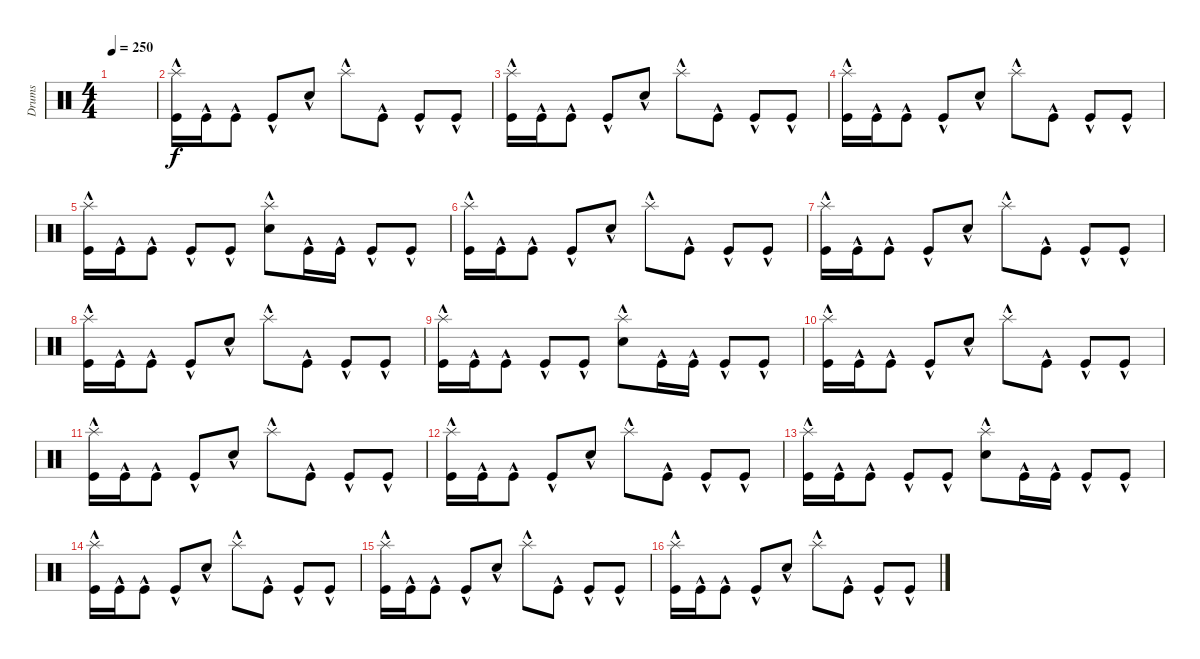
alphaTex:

\track ("Drums" "Drums") {instrument percussion}
\staff {score}
\articulation defaults
\ts (4 4)
\tempo 250
\clef neutral
\ks c
|
("Kick (hit)"{hac} "Splash (hit)"{hac}).16 "Kick (hit)"{hac}.16 "Kick (hit)"{hac}.8 "Kick (hit)"{hac}.8 "Snare (hit) 2"{hac}.8 "Splash (hit)"{hac}.8 "Kick (hit)"{hac}.8 "Kick (hit)"{hac}.8 "Kick (hit)"{hac}.8 |
("Kick (hit)"{hac} "Splash (hit)"{hac}).16 "Kick (hit)"{hac}.16 "Kick (hit)"{hac}.8 "Kick (hit)"{hac}.8 "Snare (hit) 2"{hac}.8 "Splash (hit)"{hac}.8 "Kick (hit)"{hac}.8 "Kick (hit)"{hac}.8 "Kick (hit)"{hac}.8 |
("Kick (hit)"{hac} "Splash (hit)"{hac}).16 "Kick (hit)"{hac}.16 "Kick (hit)"{hac}.8 "Kick (hit)"{hac}.8 "Snare (hit) 2"{hac}.8 "Splash (hit)"{hac}.8 "Kick (hit)"{hac}.8 "Kick (hit)"{hac}.8 "Kick (hit)"{hac}.8 |
("Kick (hit)"{hac} "Splash (hit)"{hac}).16 "Kick (hit)"{hac}.16 "Kick (hit)"{hac}.8 "Kick (hit)"{hac}.8 "Kick (hit)"{hac}.8 ("Snare (hit) 2"{hac} "Splash (hit)"{hac}).8 "Kick (hit)"{hac}.16 "Kick (hit)"{hac}.16 "Kick (hit)"{hac}.8 "Kick (hit)"{hac}.8 |
("Kick (hit)"{hac} "Splash (hit)"{hac}).16 "Kick (hit)"{hac}.16 "Kick (hit)"{hac}.8 "Kick (hit)"{hac}.8 "Snare (hit) 2"{hac}.8 "Splash (hit)"{hac}.8 "Kick (hit)"{hac}.8 "Kick (hit)"{hac}.8 "Kick (hit)"{hac}.8 |
("Kick (hit)"{hac} "Splash (hit)"{hac}).16 "Kick (hit)"{hac}.16 "Kick (hit)"{hac}.8 "Kick (hit)"{hac}.8 "Snare (hit) 2"{hac}.8 "Splash (hit)"{hac}.8 "Kick (hit)"{hac}.8 "Kick (hit)"{hac}.8 "Kick (hit)"{hac}.8 |
("Kick (hit)"{hac} "Splash (hit)"{hac}).16 "Kick (hit)"{hac}.16 "Kick (hit)"{hac}.8 "Kick (hit)"{hac}.8 "Snare (hit) 2"{hac}.8 "Splash (hit)"{hac}.8 "Kick (hit)"{hac}.8 "Kick (hit)"{hac}.8 "Kick (hit)"{hac}.8 |
("Kick (hit)"{hac} "Splash (hit)"{hac}).16 "Kick (hit)"{hac}.16 "Kick (hit)"{hac}.8 "Kick (hit)"{hac}.8 "Kick (hit)"{hac}.8 ("Snare (hit) 2"{hac} "Splash (hit)"{hac}).8 "Kick (hit)"{hac}.16 "Kick (hit)"{hac}.16 "Kick (hit)"{hac}.8 "Kick (hit)"{hac}.8 |
("Kick (hit)"{hac} "Splash (hit)"{hac}).16 "Kick (hit)"{hac}.16 "Kick (hit)"{hac}.8 "Kick (hit)"{hac}.8 "Snare (hit) 2"{hac}.8 "Splash (hit)"{hac}.8 "Kick (hit)"{hac}.8 "Kick (hit)"{hac}.8 "Kick (hit)"{hac}.8 |
("Kick (hit)"{hac} "Splash (hit)"{hac}).16 "Kick (hit)"{hac}.16 "Kick (hit)"{hac}.8 "Kick (hit)"{hac}.8 "Snare (hit) 2"{hac}.8 "Splash (hit)"{hac}.8 "Kick (hit)"{hac}.8 "Kick (hit)"{hac}.8 "Kick (hit)"{hac}.8 |
("Kick (hit)"{hac} "Splash (hit)"{hac}).16 "Kick (hit)"{hac}.16 "Kick (hit)"{hac}.8 "Kick (hit)"{hac}.8 "Snare (hit) 2"{hac}.8 "Splash (hit)"{hac}.8 "Kick (hit)"{hac}.8 "Kick (hit)"{hac}.8 "Kick (hit)"{hac}.8 |
("Kick (hit)"{hac} "Splash (hit)"{hac}).16 "Kick (hit)"{hac}.16 "Kick (hit)"{hac}.8 "Kick (hit)"{hac}.8 "Kick (hit)"{hac}.8 ("Snare (hit) 2"{hac} "Splash (hit)"{hac}).8 "Kick (hit)"{hac}.16 "Kick (hit)"{hac}.16 "Kick (hit)"{hac}.8 "Kick (hit)"{hac}.8 |
("Kick (hit)"{hac} "Splash (hit)"{hac}).16 "Kick (hit)"{hac}.16 "Kick (hit)"{hac}.8 "Kick (hit)"{hac}.8 "Snare (hit) 2"{hac}.8 "Splash (hit)"{hac}.8 "Kick (hit)"{hac}.8 "Kick (hit)"{hac}.8 "Kick (hit)"{hac}.8 |
("Kick (hit)"{hac} "Splash (hit)"{hac}).16 "Kick (hit)"{hac}.16 "Kick (hit)"{hac}.8 "Kick (hit)"{hac}.8 "Snare (hit) 2"{hac}.8 "Splash (hit)"{hac}.8 "Kick (hit)"{hac}.8 "Kick (hit)"{hac}.8 "Kick (hit)"{hac}.8 |
("Kick (hit)"{hac} "Splash (hit)"{hac}).16 "Kick (hit)"{hac}.16 "Kick (hit)"{hac}.8 "Kick (hit)"{hac}.8 "Snare (hit) 2"{hac}.8 "Splash (hit)"{hac}.8 "Kick (hit)"{hac}.8 "Kick (hit)"{hac}.8 "Kick (hit)"{hac}.8
